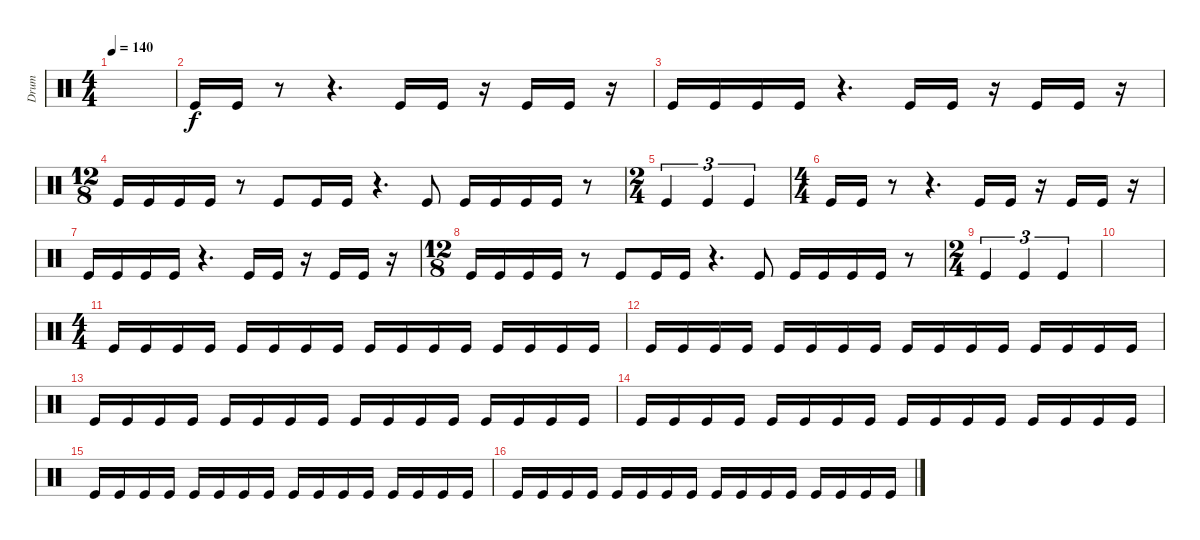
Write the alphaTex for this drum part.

\track ("Drum" "Drum") {instrument percussion}
\staff {score}
\articulation defaults
\ts (4 4)
\tempo 140
\clef neutral
\ks c
|
"Kick (hit)".16 "Kick (hit)".16 r.8 r.4{d} "Kick (hit)".16 "Kick (hit)".16 r.16 "Kick (hit)".16 "Kick (hit)".16 r.16 |
"Kick (hit)".16 "Kick (hit)".16 "Kick (hit)".16 "Kick (hit)".16 r.4{d} "Kick (hit)".16 "Kick (hit)".16 r.16 "Kick (hit)".16 "Kick (hit)".16 r.16 |
\ts (12 8)
"Kick (hit)".16 "Kick (hit)".16 "Kick (hit)".16 "Kick (hit)".16 r.8 "Kick (hit)".8 "Kick (hit)".16 "Kick (hit)".16 r.4{d} "Kick (hit)".8 "Kick (hit)".16 "Kick (hit)".16 "Kick (hit)".16 "Kick (hit)".16 r.8 |
\ts (2 4)
"Kick (hit)".4{tu (3 2)} "Kick (hit)".4{tu (3 2)} "Kick (hit)".4{tu (3 2)} |
\ts (4 4)
"Kick (hit)".16 "Kick (hit)".16 r.8 r.4{d} "Kick (hit)".16 "Kick (hit)".16 r.16 "Kick (hit)".16 "Kick (hit)".16 r.16 |
"Kick (hit)".16 "Kick (hit)".16 "Kick (hit)".16 "Kick (hit)".16 r.4{d} "Kick (hit)".16 "Kick (hit)".16 r.16 "Kick (hit)".16 "Kick (hit)".16 r.16 |
\ts (12 8)
"Kick (hit)".16 "Kick (hit)".16 "Kick (hit)".16 "Kick (hit)".16 r.8 "Kick (hit)".8 "Kick (hit)".16 "Kick (hit)".16 r.4{d} "Kick (hit)".8 "Kick (hit)".16 "Kick (hit)".16 "Kick (hit)".16 "Kick (hit)".16 r.8 |
\ts (2 4)
"Kick (hit)".4{tu (3 2)} "Kick (hit)".4{tu (3 2)} "Kick (hit)".4{tu (3 2)} |
|
\ts (4 4)
"Kick (hit)".16 "Kick (hit)".16 "Kick (hit)".16 "Kick (hit)".16 "Kick (hit)".16 "Kick (hit)".16 "Kick (hit)".16 "Kick (hit)".16 "Kick (hit)".16 "Kick (hit)".16 "Kick (hit)".16 "Kick (hit)".16 "Kick (hit)".16 "Kick (hit)".16 "Kick (hit)".16 "Kick (hit)".16 |
"Kick (hit)".16 "Kick (hit)".16 "Kick (hit)".16 "Kick (hit)".16 "Kick (hit)".16 "Kick (hit)".16 "Kick (hit)".16 "Kick (hit)".16 "Kick (hit)".16 "Kick (hit)".16 "Kick (hit)".16 "Kick (hit)".16 "Kick (hit)".16 "Kick (hit)".16 "Kick (hit)".16 "Kick (hit)".16 |
"Kick (hit)".16 "Kick (hit)".16 "Kick (hit)".16 "Kick (hit)".16 "Kick (hit)".16 "Kick (hit)".16 "Kick (hit)".16 "Kick (hit)".16 "Kick (hit)".16 "Kick (hit)".16 "Kick (hit)".16 "Kick (hit)".16 "Kick (hit)".16 "Kick (hit)".16 "Kick (hit)".16 "Kick (hit)".16 |
"Kick (hit)".16 "Kick (hit)".16 "Kick (hit)".16 "Kick (hit)".16 "Kick (hit)".16 "Kick (hit)".16 "Kick (hit)".16 "Kick (hit)".16 "Kick (hit)".16 "Kick (hit)".16 "Kick (hit)".16 "Kick (hit)".16 "Kick (hit)".16 "Kick (hit)".16 "Kick (hit)".16 "Kick (hit)".16 |
"Kick (hit)".16 "Kick (hit)".16 "Kick (hit)".16 "Kick (hit)".16 "Kick (hit)".16 "Kick (hit)".16 "Kick (hit)".16 "Kick (hit)".16 "Kick (hit)".16 "Kick (hit)".16 "Kick (hit)".16 "Kick (hit)".16 "Kick (hit)".16 "Kick (hit)".16 "Kick (hit)".16 "Kick (hit)".16 |
"Kick (hit)".16 "Kick (hit)".16 "Kick (hit)".16 "Kick (hit)".16 "Kick (hit)".16 "Kick (hit)".16 "Kick (hit)".16 "Kick (hit)".16 "Kick (hit)".16 "Kick (hit)".16 "Kick (hit)".16 "Kick (hit)".16 "Kick (hit)".16 "Kick (hit)".16 "Kick (hit)".16 "Kick (hit)".16
